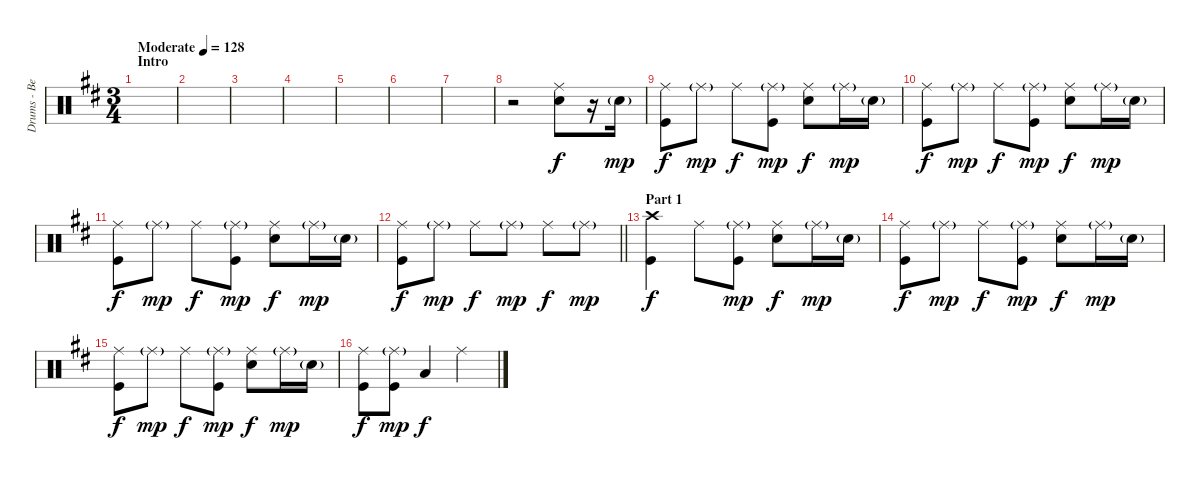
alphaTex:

\track ("Drums - Ben Johnston" "Drums - Be") {instrument percussion}
\staff {score}
\articulation defaults
\ts (3 4)
\section ("" "Intro")
\tempo (128 "Moderate")
\clef neutral
\ks d
|
|
|
|
|
|
|
r.2 ("Ride (middle)" "Snare (hit) 2").8 r.16 "Snare (hit) 2"{g}.16{dy mp} |
("Ride (middle)" "Kick (hit)").8{dy f} "Ride (middle)"{g}.8{dy mp} "Ride (middle)".8{dy f} ("Ride (middle)"{g} "Kick (hit)").8{dy mp} ("Ride (middle)" "Snare (hit) 2").8{dy f} "Ride (middle)"{g}.16{dy mp} "Snare (hit) 2"{g}.16 |
("Ride (middle)" "Kick (hit)").8{dy f} "Ride (middle)"{g}.8{dy mp} "Ride (middle)".8{dy f} ("Ride (middle)"{g} "Kick (hit)").8{dy mp} ("Ride (middle)" "Snare (hit) 2").8{dy f} "Ride (middle)"{g}.16{dy mp} "Snare (hit) 2"{g}.16 |
("Ride (middle)" "Kick (hit)").8{dy f} "Ride (middle)"{g}.8{dy mp} "Ride (middle)".8{dy f} ("Ride (middle)"{g} "Kick (hit)").8{dy mp} ("Ride (middle)" "Snare (hit) 2").8{dy f} "Ride (middle)"{g}.16{dy mp} "Snare (hit) 2"{g}.16 |
\barLineRight lightlight
("Ride (middle)" "Kick (hit)").8{dy f} "Ride (middle)"{g}.8{dy mp} "Ride (middle)".8{dy f} "Ride (middle)"{g}.8{dy mp} "Ride (middle)".8{dy f} "Ride (middle)"{g}.8{dy mp} |
\section ("" "Part 1")
("Crash high (hit)" "Kick (hit)").4{dy f} "Ride (middle)".8 ("Ride (middle)"{g} "Kick (hit)").8{dy mp} ("Ride (middle)" "Snare (hit) 2").8{dy f} "Ride (middle)"{g}.16{dy mp} "Snare (hit) 2"{g}.16 |
("Ride (middle)" "Kick (hit)").8{dy f} "Ride (middle)"{g}.8{dy mp} "Ride (middle)".8{dy f} ("Ride (middle)"{g} "Kick (hit)").8{dy mp} ("Ride (middle)" "Snare (hit) 2").8{dy f} "Ride (middle)"{g}.16{dy mp} "Snare (hit) 2"{g}.16 |
("Ride (middle)" "Kick (hit)").8{dy f} "Ride (middle)"{g}.8{dy mp} "Ride (middle)".8{dy f} ("Ride (middle)"{g} "Kick (hit)").8{dy mp} ("Ride (middle)" "Snare (hit) 2").8{dy f} "Ride (middle)"{g}.16{dy mp} "Snare (hit) 2"{g}.16 |
("Ride (middle)" "Kick (hit)").8{dy f} ("Ride (middle)"{g} "Kick (hit)").8{dy mp} "Low Floor Tom (hit)".4{dy f} "Ride (middle)".4
